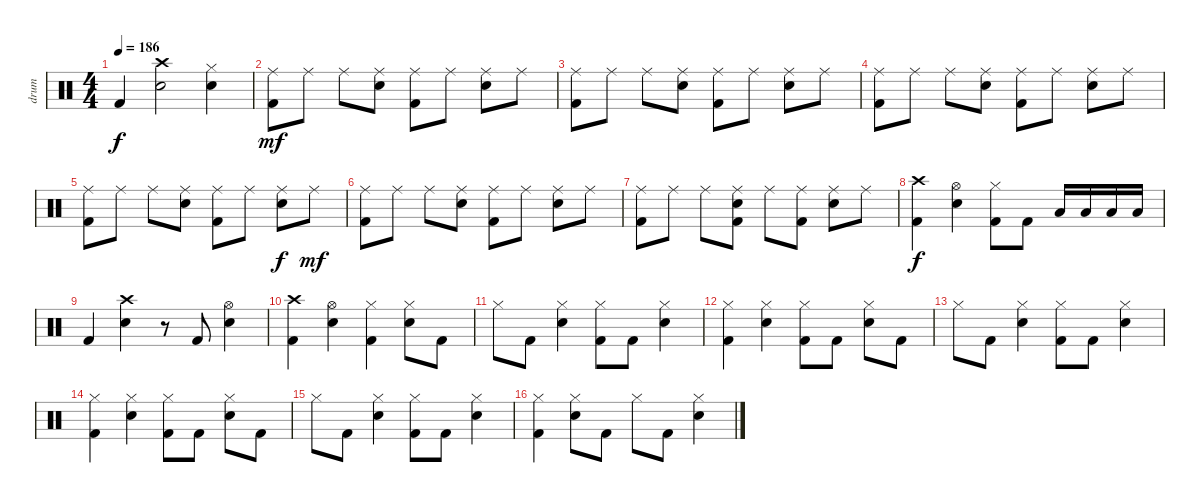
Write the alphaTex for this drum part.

\track ("drum" "drum") {instrument percussion}
\staff {score}
\articulation defaults
\ts (4 4)
\tempo 186
\clef neutral
\ks c "Kick (hit) 2".4{dy f}
("Crash high (hit)" "Snare (hit) 2").2 ("Hi-Hat (closed)" "Snare (hit) 2").4 |
("Ride (middle)" "Kick (hit) 2").8{dy mf} "Ride (middle)".8 "Ride (middle)".8 ("Ride (middle)" "Snare (hit) 2").8 ("Ride (middle)" "Kick (hit) 2").8 "Ride (middle)".8 ("Ride (middle)" "Snare (hit) 2").8 "Ride (middle)".8 |
("Ride (middle)" "Kick (hit) 2").8 "Ride (middle)".8 "Ride (middle)".8 ("Ride (middle)" "Snare (hit) 2").8 ("Ride (middle)" "Kick (hit) 2").8 "Ride (middle)".8 ("Ride (middle)" "Snare (hit) 2").8 "Ride (middle)".8 |
("Ride (middle)" "Kick (hit) 2").8 "Ride (middle)".8 "Ride (middle)".8 ("Ride (middle)" "Snare (hit) 2").8 ("Ride (middle)" "Kick (hit) 2").8 "Ride (middle)".8 ("Ride (middle)" "Snare (hit) 2").8 "Ride (middle)".8 |
("Ride (middle)" "Kick (hit) 2").8 "Ride (middle)".8 "Ride (middle)".8 ("Ride (middle)" "Snare (hit) 2").8 ("Ride (middle)" "Kick (hit) 2").8 "Ride (middle)".8 ("Ride (middle)" "Snare (hit) 2").8{dy f} "Ride (middle)".8{dy mf} |
("Ride (middle)" "Kick (hit) 2").8 "Ride (middle)".8 "Ride (middle)".8 ("Ride (middle)" "Snare (hit) 2").8 ("Ride (middle)" "Kick (hit) 2").8 "Ride (middle)".8 ("Ride (middle)" "Snare (hit) 2").8 "Ride (middle)".8 |
("Ride (middle)" "Kick (hit) 2").8 "Ride (middle)".8 "Ride (middle)".8 ("Ride (middle)" "Snare (hit) 2" "Kick (hit) 2").8 "Ride (middle)".8 ("Ride (middle)" "Kick (hit) 2").8 ("Ride (middle)" "Snare (hit) 2").8 "Ride (middle)".8 |
("Crash high (hit)" "Kick (hit) 2").4{dy f} ("Hi-Hat (open)" "Snare (hit) 2").4 ("Hi-Hat (closed)" "Kick (hit) 2").8 "Kick (hit) 2".8 "Low Floor Tom (hit)".16 "Low Floor Tom (hit)".16 "Low Floor Tom (hit)".16 "Low Floor Tom (hit)".16 |
"Kick (hit) 2".4 ("Crash high (hit)" "Snare (hit) 2").4 r.8 "Kick (hit) 2".8 ("Hi-Hat (open)" "Snare (hit) 2").4 |
("Crash high (hit)" "Kick (hit) 2").4 ("Hi-Hat (open)" "Snare (hit) 2").4 ("Hi-Hat (closed)" "Kick (hit) 2").4 ("Hi-Hat (closed)" "Snare (hit) 2").8 "Kick (hit) 2".8 |
"Hi-Hat (closed)".8 "Kick (hit) 2".8 ("Hi-Hat (closed)" "Snare (hit) 2").4 ("Hi-Hat (closed)" "Kick (hit) 2").8 "Kick (hit) 2".8 ("Hi-Hat (closed)" "Snare (hit) 2").4 |
("Hi-Hat (closed)" "Kick (hit) 2").4 ("Hi-Hat (closed)" "Snare (hit) 2").4 ("Hi-Hat (closed)" "Kick (hit) 2").8 "Kick (hit) 2".8 ("Hi-Hat (closed)" "Snare (hit) 2").8 "Kick (hit) 2".8 |
"Hi-Hat (closed)".8 "Kick (hit) 2".8 ("Hi-Hat (closed)" "Snare (hit) 2").4 ("Hi-Hat (closed)" "Kick (hit) 2").8 "Kick (hit) 2".8 ("Hi-Hat (closed)" "Snare (hit) 2").4 |
("Hi-Hat (closed)" "Kick (hit) 2").4 ("Hi-Hat (closed)" "Snare (hit) 2").4 ("Hi-Hat (closed)" "Kick (hit) 2").8 "Kick (hit) 2".8 ("Hi-Hat (closed)" "Snare (hit) 2").8 "Kick (hit) 2".8 |
"Hi-Hat (closed)".8 "Kick (hit) 2".8 ("Hi-Hat (closed)" "Snare (hit) 2").4 ("Hi-Hat (closed)" "Kick (hit) 2").8 "Kick (hit) 2".8 ("Hi-Hat (closed)" "Snare (hit) 2").4 |
("Hi-Hat (closed)" "Kick (hit) 2").4 ("Hi-Hat (closed)" "Snare (hit) 2").8 "Kick (hit) 2".8 "Hi-Hat (closed)".8 "Kick (hit) 2".8 ("Hi-Hat (closed)" "Snare (hit) 2").4
